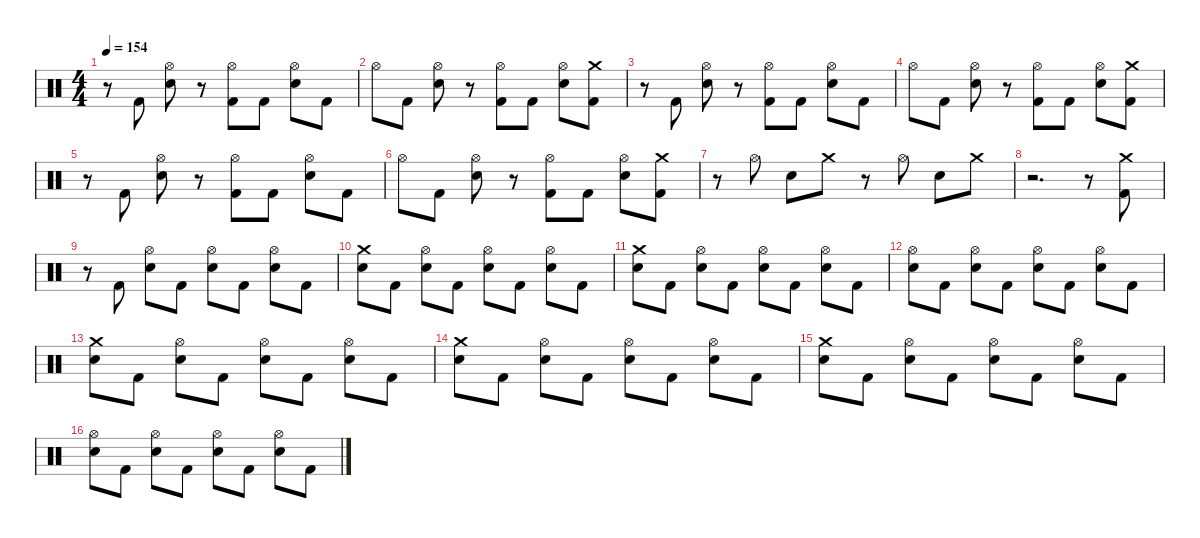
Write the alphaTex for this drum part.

\defaultSystemsLayout 4
\hideDynamics
\bracketExtendMode nobrackets
\singleTrackTrackNamePolicy hidden
\multiTrackTrackNamePolicy hidden
\firstSystemTrackNameMode fullname
\firstSystemTrackNameOrientation horizontal
\otherSystemsTrackNameOrientation horizontal
\track ("Percussie" "drm.") {instrument percussion}
\staff {score}
\articulation defaults
\ts (4 4)
\tempo 154
\clef neutral
\ks c
r.8{dy f beam Down} "Kick (hit) 2".8{beam Up} ("Hi-Hat (open)" "Snare (hit) 2").8{beam Down} r.8{beam Down} ("Hi-Hat (open)" "Kick (hit) 2").8{beam Down} "Kick (hit) 2".8{beam Down} ("Hi-Hat (open)" "Snare (hit) 2").8{beam Down} "Kick (hit) 2".8{beam Down} |
"Hi-Hat (open)".8{beam Down} "Kick (hit) 2".8{beam Down} ("Hi-Hat (open)" "Snare (hit) 2").8{beam Down} r.8{beam Down} ("Hi-Hat (open)" "Kick (hit) 2").8{beam Down} "Kick (hit) 2".8{beam Down} ("Hi-Hat (open)" "Snare (hit) 2").8{beam Down} ("Crash medium (hit)" "Kick (hit) 2").8{beam Down} |
r.8{beam Down} "Kick (hit) 2".8{beam Up} ("Hi-Hat (open)" "Snare (hit) 2").8{beam Down} r.8{beam Down} ("Hi-Hat (open)" "Kick (hit) 2").8{beam Down} "Kick (hit) 2".8{beam Down} ("Hi-Hat (open)" "Snare (hit) 2").8{beam Down} "Kick (hit) 2".8{beam Down} |
"Hi-Hat (open)".8{beam Down} "Kick (hit) 2".8{beam Down} ("Hi-Hat (open)" "Snare (hit) 2").8{beam Down} r.8{beam Down} ("Hi-Hat (open)" "Kick (hit) 2").8{beam Down} "Kick (hit) 2".8{beam Down} ("Hi-Hat (open)" "Snare (hit) 2").8{beam Down} ("Crash medium (hit)" "Kick (hit) 2").8{beam Down} |
r.8{beam Down} "Kick (hit) 2".8{beam Up} ("Hi-Hat (open)" "Snare (hit) 2").8{beam Down} r.8{beam Down} ("Hi-Hat (open)" "Kick (hit) 2").8{beam Down} "Kick (hit) 2".8{beam Down} ("Hi-Hat (open)" "Snare (hit) 2").8{beam Down} "Kick (hit) 2".8{beam Down} |
"Hi-Hat (open)".8{beam Down} "Kick (hit) 2".8{beam Down} ("Hi-Hat (open)" "Snare (hit) 2").8{beam Down} r.8{beam Down} ("Hi-Hat (open)" "Kick (hit) 2").8{beam Down} "Kick (hit) 2".8{beam Down} ("Hi-Hat (open)" "Snare (hit) 2").8{beam Down} ("Crash medium (hit)" "Kick (hit) 2").8{beam Down} |
r.8{beam Down} "Hi-Hat (open)".8{beam Down} "Snare (hit) 2".8{beam Down} "Crash medium (hit)".8{beam Down} r.8{beam Down} "Hi-Hat (open)".8{beam Down} "Snare (hit) 2".8{beam Down} "Crash medium (hit)".8{beam Down} |
r.2{d beam Down} r.8{beam Down} ("Crash medium (hit)" "Kick (hit) 2").8{beam Down} |
r.8{beam Down} "Kick (hit) 2".8{beam Up} ("Hi-Hat (open)" "Snare (hit) 2").8{beam Down} "Kick (hit) 2".8{beam Down} ("Hi-Hat (open)" "Snare (hit) 2").8{beam Down} "Kick (hit) 2".8{beam Down} ("Hi-Hat (open)" "Snare (hit) 2").8{beam Down} "Kick (hit) 2".8{beam Down} |
("Crash medium (hit)" "Snare (hit) 2").8{beam Down} "Kick (hit) 2".8{beam Down} ("Hi-Hat (open)" "Snare (hit) 2").8{beam Down} "Kick (hit) 2".8{beam Down} ("Hi-Hat (open)" "Snare (hit) 2").8{beam Down} "Kick (hit) 2".8{beam Down} ("Hi-Hat (open)" "Snare (hit) 2").8{beam Down} "Kick (hit) 2".8{beam Down} |
("Crash medium (hit)" "Snare (hit) 2").8{beam Down} "Kick (hit) 2".8{beam Down} ("Hi-Hat (open)" "Snare (hit) 2").8{beam Down} "Kick (hit) 2".8{beam Down} ("Hi-Hat (open)" "Snare (hit) 2").8{beam Down} "Kick (hit) 2".8{beam Down} ("Hi-Hat (open)" "Snare (hit) 2").8{beam Down} "Kick (hit) 2".8{beam Down} |
("Hi-Hat (open)" "Snare (hit) 2").8{beam Down} "Kick (hit) 2".8{beam Down} ("Hi-Hat (open)" "Snare (hit) 2").8{beam Down} "Kick (hit) 2".8{beam Down} ("Hi-Hat (open)" "Snare (hit) 2").8{beam Down} "Kick (hit) 2".8{beam Down} ("Hi-Hat (open)" "Snare (hit) 2").8{beam Down} "Kick (hit) 2".8{beam Down} |
("Crash medium (hit)" "Snare (hit) 2").8{beam Down} "Kick (hit) 2".8{beam Down} ("Hi-Hat (open)" "Snare (hit) 2").8{beam Down} "Kick (hit) 2".8{beam Down} ("Hi-Hat (open)" "Snare (hit) 2").8{beam Down} "Kick (hit) 2".8{beam Down} ("Hi-Hat (open)" "Snare (hit) 2").8{beam Down} "Kick (hit) 2".8{beam Down} |
("Crash medium (hit)" "Snare (hit) 2").8{beam Down} "Kick (hit) 2".8{beam Down} ("Hi-Hat (open)" "Snare (hit) 2").8{beam Down} "Kick (hit) 2".8{beam Down} ("Hi-Hat (open)" "Snare (hit) 2").8{beam Down} "Kick (hit) 2".8{beam Down} ("Hi-Hat (open)" "Snare (hit) 2").8{beam Down} "Kick (hit) 2".8{beam Down} |
("Crash medium (hit)" "Snare (hit) 2").8{beam Down} "Kick (hit) 2".8{beam Down} ("Hi-Hat (open)" "Snare (hit) 2").8{beam Down} "Kick (hit) 2".8{beam Down} ("Hi-Hat (open)" "Snare (hit) 2").8{beam Down} "Kick (hit) 2".8{beam Down} ("Hi-Hat (open)" "Snare (hit) 2").8{beam Down} "Kick (hit) 2".8{beam Down} |
("Hi-Hat (open)" "Snare (hit) 2").8{beam Down} "Kick (hit) 2".8{beam Down} ("Hi-Hat (open)" "Snare (hit) 2").8{beam Down} "Kick (hit) 2".8{beam Down} ("Hi-Hat (open)" "Snare (hit) 2").8{beam Down} "Kick (hit) 2".8{beam Down} ("Hi-Hat (open)" "Snare (hit) 2").8{beam Down} "Kick (hit) 2".8{beam Down}
